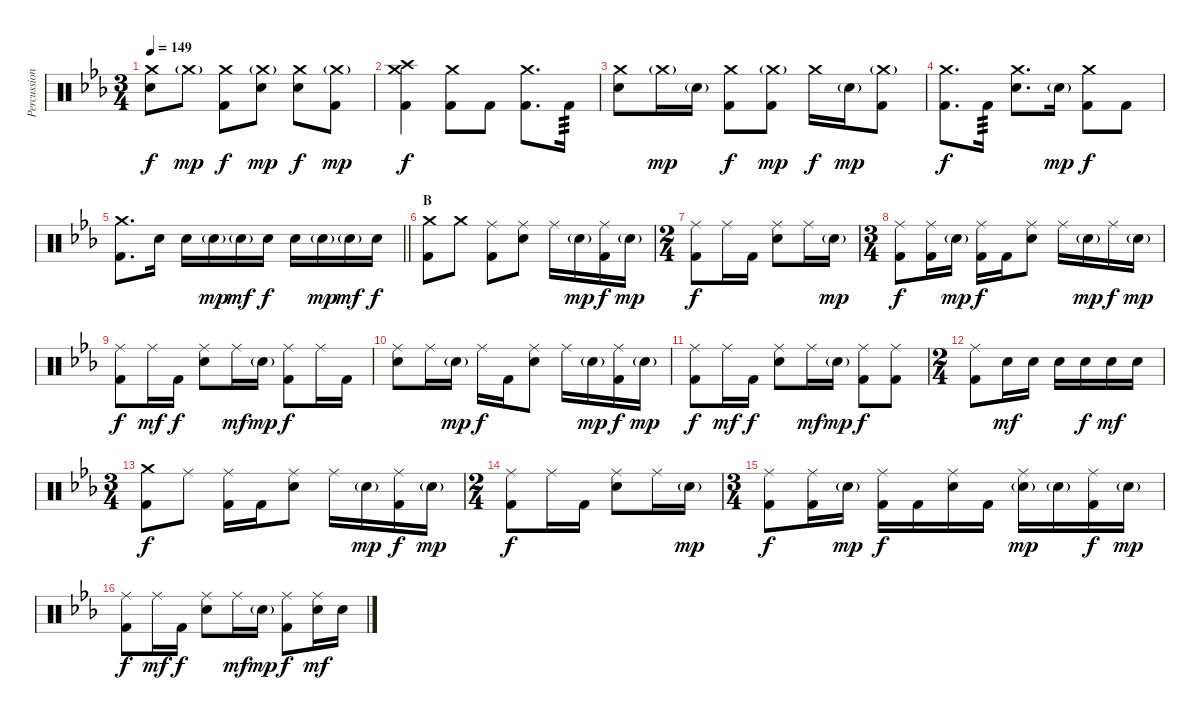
\track ("Percussion" "Percussion") {instrument percussion}
\staff {score}
\articulation defaults
\ts (3 4)
\tempo 149
\clef neutral
\ks cminor
("Crash medium (hit)" "Snare (hit) 2").8{dy f} "Crash medium (hit)"{g}.8{dy mp} ("Crash medium (hit)" "Kick (hit) 2").8{dy f} ("Crash medium (hit)"{g} "Snare (hit) 2").8{dy mp} ("Crash medium (hit)" "Snare (hit) 2").8{dy f} ("Crash medium (hit)"{g} "Kick (hit) 2").8{dy mp} |
("Crash medium (hit)" "Crash high (hit)" "Kick (hit) 2").4{dy f} ("Crash medium (hit)" "Kick (hit) 2").8 "Kick (hit) 2".8 ("Crash medium (hit)" "Kick (hit) 2").8{d} "Kick (hit) 2".16{tp 3} |
("Crash medium (hit)" "Snare (hit) 2").8 "Crash medium (hit)"{g}.16{dy mp} "Snare (hit) 2"{g}.16 ("Crash medium (hit)" "Kick (hit) 2").8{dy f} ("Crash medium (hit)"{g} "Kick (hit) 2").8{dy mp} "Crash medium (hit)".16{dy f} "Snare (hit) 2"{g}.16{dy mp} ("Crash medium (hit)"{g} "Kick (hit) 2").8 |
("Crash medium (hit)" "Kick (hit) 2").8{d dy f} "Kick (hit) 2".16{tp 3} ("Crash medium (hit)" "Snare (hit) 2").8{d} "Snare (hit) 2"{g}.16{dy mp} ("Crash medium (hit)" "Kick (hit) 2").8{dy f} "Kick (hit) 2".8 |
\barLineRight lightlight
("Crash medium (hit)" "Kick (hit) 2").8{d} "Snare (hit) 2".16 "Snare (hit) 2".16 "Snare (hit) 2"{g}.16{dy mp} "Snare (hit) 2"{g}.16{dy mf} "Snare (hit) 2".16{dy f} "Snare (hit) 2".16 "Snare (hit) 2"{g}.16{dy mp} "Snare (hit) 2"{g}.16{dy mf} "Snare (hit) 2".16{dy f} |
\section ("" "B")
("Crash medium (hit)" "Kick (hit) 2").8 "Crash medium (hit)".8 ("Ride (middle)" "Kick (hit) 2").8 ("Ride (middle)" "Snare (hit) 2").8 "Ride (middle)".16 "Snare (hit) 2"{g}.16{dy mp} ("Ride (middle)" "Kick (hit) 2").16{dy f} "Snare (hit) 2"{g}.16{dy mp} |
\ts (2 4)
("Ride (middle)" "Kick (hit) 2").8{dy f} "Ride (middle)".16 "Kick (hit) 2".16 ("Ride (middle)" "Snare (hit) 2").8 "Ride (middle)".16 "Snare (hit) 2"{g}.16{dy mp} |
\ts (3 4)
("Ride (middle)" "Kick (hit) 2").8{dy f} ("Ride (middle)" "Kick (hit) 2").16 "Snare (hit) 2"{g}.16{dy mp} ("Ride (middle)" "Kick (hit) 2").16{dy f} "Kick (hit) 2".16 ("Ride (middle)" "Snare (hit) 2").8 "Ride (middle)".16 "Snare (hit) 2"{g}.16{dy mp} "Ride (middle)".16{dy f} "Snare (hit) 2"{g}.16{dy mp} |
("Ride (middle)" "Kick (hit) 2").8{dy f} "Ride (middle)".16{dy mf} "Kick (hit) 2".16{dy f} ("Ride (middle)" "Snare (hit) 2").8 "Ride (middle)".16{dy mf} "Snare (hit) 2"{g}.16{dy mp} ("Ride (middle)" "Kick (hit) 2").8{dy f} "Ride (middle)".16 "Kick (hit) 2".16 |
("Ride (middle)" "Snare (hit) 2").8 "Ride (middle)".16 "Snare (hit) 2"{g}.16{dy mp} "Ride (middle)".16{dy f} "Kick (hit) 2".16 ("Ride (middle)" "Snare (hit) 2").8 "Ride (middle)".16 "Snare (hit) 2"{g}.16{dy mp} ("Ride (middle)" "Kick (hit) 2").16{dy f} "Snare (hit) 2"{g}.16{dy mp} |
("Ride (middle)" "Kick (hit) 2").8{dy f} "Ride (middle)".16{dy mf} "Kick (hit) 2".16{dy f} ("Ride (middle)" "Snare (hit) 2").8 "Ride (middle)".16{dy mf} "Snare (hit) 2"{g}.16{dy mp} ("Ride (middle)" "Kick (hit) 2").8{dy f} ("Ride (middle)" "Kick (hit) 2").8 |
\ts (2 4)
("Ride (middle)" "Kick (hit) 2").8 "Snare (hit) 2".16{dy mf} "Snare (hit) 2".16 "Snare (hit) 2".16 "Snare (hit) 2".16{dy f} "Snare (hit) 2".16{dy mf} "Snare (hit) 2".16 |
\ts (3 4)
("Crash medium (hit)" "Kick (hit) 2").8{dy f} "Ride (middle)".8 ("Ride (middle)" "Kick (hit) 2").16 "Kick (hit) 2".16 ("Ride (middle)" "Snare (hit) 2").8 "Ride (middle)".16 "Snare (hit) 2"{g}.16{dy mp} ("Ride (middle)" "Kick (hit) 2").16{dy f} "Snare (hit) 2"{g}.16{dy mp} |
\ts (2 4)
("Ride (middle)" "Kick (hit) 2").8{dy f} "Ride (middle)".16 "Kick (hit) 2".16 ("Ride (middle)" "Snare (hit) 2").8 "Ride (middle)".16 "Snare (hit) 2"{g}.16{dy mp} |
\ts (3 4)
("Ride (middle)" "Kick (hit) 2").8{dy f} ("Ride (middle)" "Kick (hit) 2").16 "Snare (hit) 2"{g}.16{dy mp} ("Ride (middle)" "Kick (hit) 2").16{dy f} "Kick (hit) 2".16 ("Ride (middle)" "Snare (hit) 2").16 "Kick (hit) 2".16 ("Ride (middle)" "Snare (hit) 2"{g}).16{dy mp} "Snare (hit) 2"{g}.16 ("Ride (middle)" "Kick (hit) 2").16{dy f} "Snare (hit) 2"{g}.16{dy mp} |
("Ride (middle)" "Kick (hit) 2").8{dy f} "Ride (middle)".16{dy mf} "Kick (hit) 2".16{dy f} ("Ride (middle)" "Snare (hit) 2").8 "Ride (middle)".16{dy mf} "Snare (hit) 2"{g}.16{dy mp} ("Ride (middle)" "Kick (hit) 2").8{dy f} ("Ride (middle)" "Snare (hit) 2").16{dy mf} "Snare (hit) 2".16
